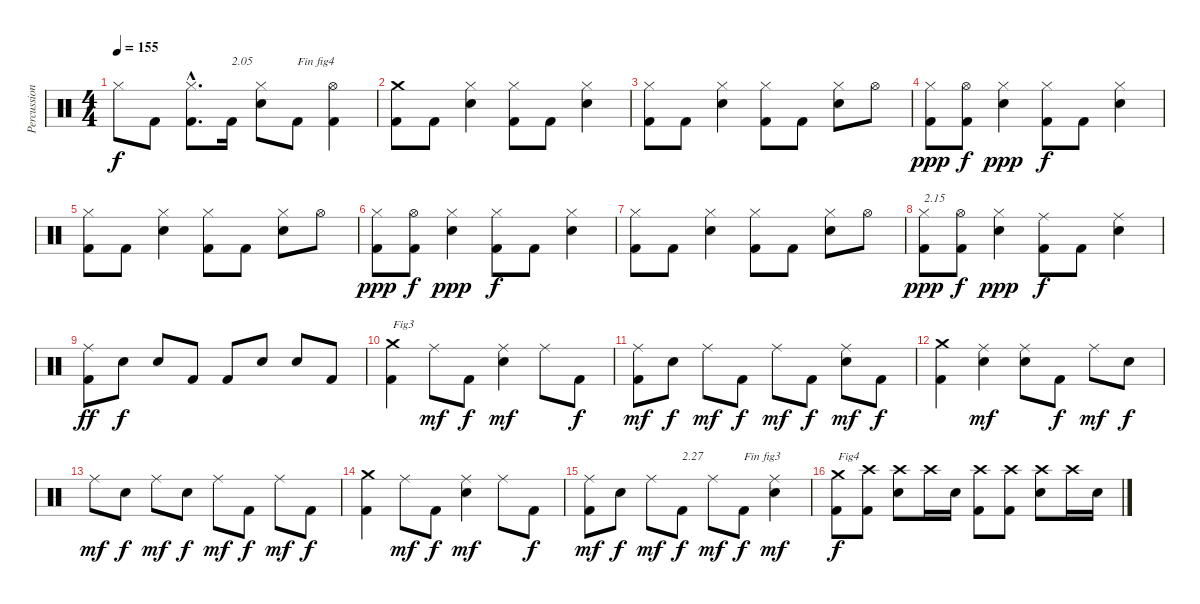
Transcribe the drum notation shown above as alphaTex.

\track ("Percussions" "Percussion") {instrument percussion}
\staff {score}
\articulation defaults
\ts (4 4)
\tempo 155
\clef neutral
\ks c "Hi-Hat (closed)".8{dy f} "Kick (hit) 2".8
("Kick (hit) 2"{hac} "Hi-Hat (closed)"{hac}).8{d} "Kick (hit) 2".16{txt "2.05"} ("Electric Snare (hit)" "Hi-Hat (closed)").8 "Kick (hit) 2".8{txt "Fin fig4"} ("Kick (hit) 2" "Hi-Hat (open)").4 |
("Kick (hit) 2" "Crash medium (hit)").8 "Kick (hit) 2".8 ("Electric Snare (hit)" "Hi-Hat (closed)").4 ("Kick (hit) 2" "Hi-Hat (closed)").8 "Kick (hit) 2".8 ("Electric Snare (hit)" "Hi-Hat (closed)").4 |
("Kick (hit) 2" "Hi-Hat (closed)").8 "Kick (hit) 2".8 ("Electric Snare (hit)" "Hi-Hat (closed)").4 ("Kick (hit) 2" "Hi-Hat (closed)").8 "Kick (hit) 2".8 ("Electric Snare (hit)" "Hi-Hat (closed)").8 "Hi-Hat (open)".8 |
("Kick (hit) 2" "Hi-Hat (closed)").8{dy ppp} ("Kick (hit) 2" "Hi-Hat (open)").8{dy f} ("Electric Snare (hit)" "Hi-Hat (closed)").4{dy ppp} ("Kick (hit) 2" "Hi-Hat (closed)").8{dy f} "Kick (hit) 2".8 ("Electric Snare (hit)" "Hi-Hat (closed)").4 |
("Kick (hit) 2" "Hi-Hat (closed)").8 "Kick (hit) 2".8 ("Electric Snare (hit)" "Hi-Hat (closed)").4 ("Kick (hit) 2" "Hi-Hat (closed)").8 "Kick (hit) 2".8 ("Electric Snare (hit)" "Hi-Hat (closed)").8 "Hi-Hat (open)".8 |
("Kick (hit) 2" "Hi-Hat (closed)").8{dy ppp} ("Kick (hit) 2" "Hi-Hat (open)").8{dy f} ("Electric Snare (hit)" "Hi-Hat (closed)").4{dy ppp} ("Kick (hit) 2" "Hi-Hat (closed)").8{dy f} "Kick (hit) 2".8 ("Electric Snare (hit)" "Hi-Hat (closed)").4 |
("Kick (hit) 2" "Hi-Hat (closed)").8 "Kick (hit) 2".8 ("Electric Snare (hit)" "Hi-Hat (closed)").4 ("Kick (hit) 2" "Hi-Hat (closed)").8 "Kick (hit) 2".8 ("Electric Snare (hit)" "Hi-Hat (closed)").8 "Hi-Hat (open)".8 |
("Kick (hit) 2" "Hi-Hat (closed)").8{txt "2.15" dy ppp} ("Kick (hit) 2" "Hi-Hat (open)").8{dy f} ("Electric Snare (hit)" "Hi-Hat (closed)").4{dy ppp} ("Kick (hit) 2" "Ride (middle)").8{dy f} "Kick (hit) 2".8 ("Electric Snare (hit)" "Ride (middle)").4 |
("Kick (hit) 2" "Ride (middle)").8{dy ff} "Electric Snare (hit)".8{dy f} "Electric Snare (hit)".8 "Kick (hit) 2".8 "Kick (hit) 2".8 "Electric Snare (hit)".8 "Electric Snare (hit)".8 "Kick (hit) 2".8 |
("Kick (hit) 2" "Crash medium (hit)").4{txt "Fig3"} "Ride (middle)".8{dy mf} "Kick (hit) 2".8{dy f} ("Electric Snare (hit)" "Ride (middle)").4{dy mf} "Ride (middle)".8 "Kick (hit) 2".8{dy f} |
("Kick (hit) 2" "Ride (middle)").8{dy mf} "Electric Snare (hit)".8{dy f} "Ride (middle)".8{dy mf} "Kick (hit) 2".8{dy f} "Ride (middle)".8{dy mf} "Kick (hit) 2".8{dy f} ("Electric Snare (hit)" "Ride (middle)").8{dy mf} "Kick (hit) 2".8{dy f} |
("Kick (hit) 2" "Crash medium (hit)").4 ("Electric Snare (hit)" "Ride (middle)").4{dy mf} ("Electric Snare (hit)" "Ride (middle)").8 "Kick (hit) 2".8{dy f} "Ride (middle)".8{dy mf} "Electric Snare (hit)".8{dy f} |
"Ride (middle)".8{dy mf} "Electric Snare (hit)".8{dy f} "Ride (middle)".8{dy mf} "Electric Snare (hit)".8{dy f} "Ride (middle)".8{dy mf} "Kick (hit) 2".8{dy f} "Ride (middle)".8{dy mf} "Kick (hit) 2".8{dy f} |
("Kick (hit) 2" "Crash medium (hit)").4 "Ride (middle)".8{dy mf} "Kick (hit) 2".8{dy f} ("Electric Snare (hit)" "Ride (middle)").4{dy mf} "Ride (middle)".8 "Kick (hit) 2".8{dy f} |
("Kick (hit) 2" "Ride (middle)").8{dy mf} "Electric Snare (hit)".8{dy f} "Ride (middle)".8{dy mf} "Kick (hit) 2".8{txt "2.27" dy f} "Ride (middle)".8{dy mf} "Kick (hit) 2".8{txt "Fin fig3" dy f} ("Electric Snare (hit)" "Ride (middle)").4{dy mf} |
("Kick (hit) 2" "Crash medium (hit)").8{txt "Fig4" dy f} ("Kick (hit) 2" "Crash high (hit)").8 ("Electric Snare (hit)" "Crash high (hit)").8 "Crash high (hit)".16 "Electric Snare (hit)".16 ("Kick (hit) 2" "Crash high (hit)").8 ("Kick (hit) 2" "Crash high (hit)").8 ("Electric Snare (hit)" "Crash high (hit)").8 "Crash high (hit)".16 "Electric Snare (hit)".16
